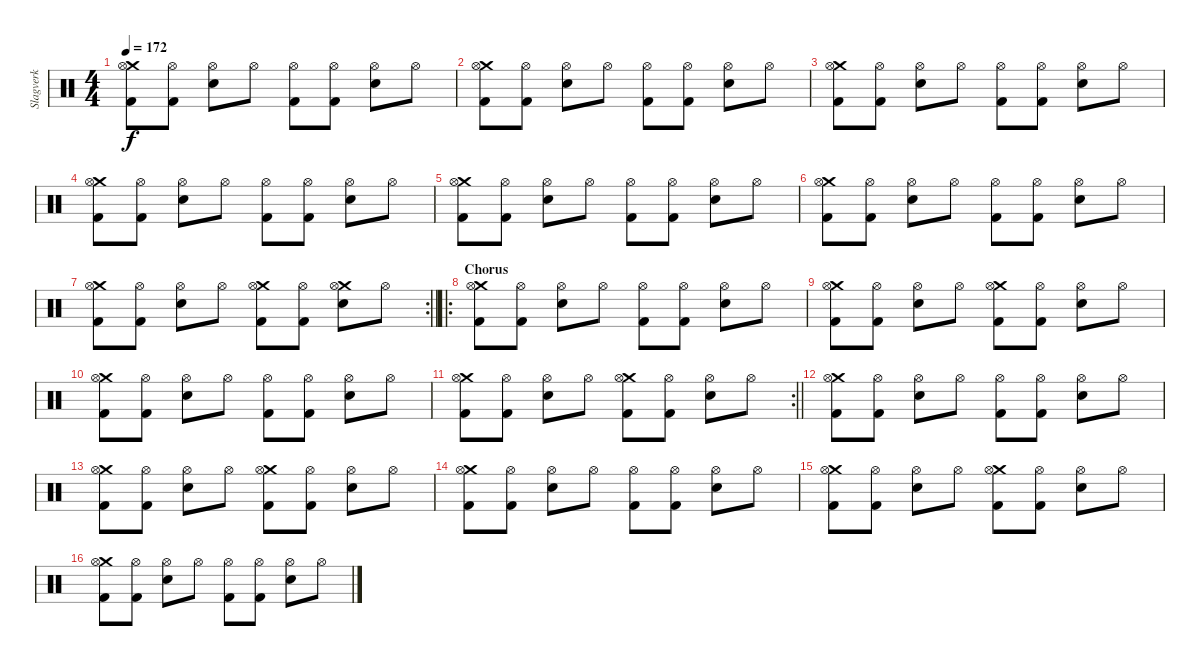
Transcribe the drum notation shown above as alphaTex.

\track ("Slagverk" "Slagverk") {instrument percussion}
\staff {score}
\articulation defaults
\ts (4 4)
\tempo 172
\clef neutral
\ks c
("Crash medium (hit)" "Kick (hit) 2" "Hi-Hat (open)").8{dy f} ("Kick (hit) 2" "Hi-Hat (open)").8 ("Snare (hit) 2" "Hi-Hat (open)").8 "Hi-Hat (open)".8 ("Kick (hit) 2" "Hi-Hat (open)").8 ("Kick (hit) 2" "Hi-Hat (open)").8 ("Snare (hit) 2" "Hi-Hat (open)").8 "Hi-Hat (open)".8 |
("Crash medium (hit)" "Kick (hit) 2" "Hi-Hat (open)").8 ("Kick (hit) 2" "Hi-Hat (open)").8 ("Snare (hit) 2" "Hi-Hat (open)").8 "Hi-Hat (open)".8 ("Kick (hit) 2" "Hi-Hat (open)").8 ("Kick (hit) 2" "Hi-Hat (open)").8 ("Snare (hit) 2" "Hi-Hat (open)").8 "Hi-Hat (open)".8 |
("Crash medium (hit)" "Kick (hit) 2" "Hi-Hat (open)").8 ("Kick (hit) 2" "Hi-Hat (open)").8 ("Snare (hit) 2" "Hi-Hat (open)").8 "Hi-Hat (open)".8 ("Kick (hit) 2" "Hi-Hat (open)").8 ("Kick (hit) 2" "Hi-Hat (open)").8 ("Snare (hit) 2" "Hi-Hat (open)").8 "Hi-Hat (open)".8 |
("Crash medium (hit)" "Kick (hit) 2" "Hi-Hat (open)").8 ("Kick (hit) 2" "Hi-Hat (open)").8 ("Snare (hit) 2" "Hi-Hat (open)").8 "Hi-Hat (open)".8 ("Kick (hit) 2" "Hi-Hat (open)").8 ("Kick (hit) 2" "Hi-Hat (open)").8 ("Snare (hit) 2" "Hi-Hat (open)").8 "Hi-Hat (open)".8 |
("Crash medium (hit)" "Kick (hit) 2" "Hi-Hat (open)").8 ("Kick (hit) 2" "Hi-Hat (open)").8 ("Snare (hit) 2" "Hi-Hat (open)").8 "Hi-Hat (open)".8 ("Kick (hit) 2" "Hi-Hat (open)").8 ("Kick (hit) 2" "Hi-Hat (open)").8 ("Snare (hit) 2" "Hi-Hat (open)").8 "Hi-Hat (open)".8 |
("Crash medium (hit)" "Kick (hit) 2" "Hi-Hat (open)").8 ("Kick (hit) 2" "Hi-Hat (open)").8 ("Snare (hit) 2" "Hi-Hat (open)").8 "Hi-Hat (open)".8 ("Kick (hit) 2" "Hi-Hat (open)").8 ("Kick (hit) 2" "Hi-Hat (open)").8 ("Snare (hit) 2" "Hi-Hat (open)").8 "Hi-Hat (open)".8 |
\rc 2
\barLineRight lightlight
("Crash medium (hit)" "Kick (hit) 2" "Hi-Hat (open)").8 ("Kick (hit) 2" "Hi-Hat (open)").8 ("Snare (hit) 2" "Hi-Hat (open)").8 "Hi-Hat (open)".8 ("Crash medium (hit)" "Kick (hit) 2" "Hi-Hat (open)").8 ("Kick (hit) 2" "Hi-Hat (open)").8 ("Crash medium (hit)" "Snare (hit) 2" "Hi-Hat (open)").8 "Hi-Hat (open)".8 |
\ro
\section ("" "Chorus")
("Crash medium (hit)" "Kick (hit) 2" "Hi-Hat (open)").8 ("Kick (hit) 2" "Hi-Hat (open)").8 ("Snare (hit) 2" "Hi-Hat (open)").8 "Hi-Hat (open)".8 ("Kick (hit) 2" "Hi-Hat (open)").8 ("Kick (hit) 2" "Hi-Hat (open)").8 ("Snare (hit) 2" "Hi-Hat (open)").8 "Hi-Hat (open)".8 |
("Crash medium (hit)" "Kick (hit) 2" "Hi-Hat (open)").8 ("Kick (hit) 2" "Hi-Hat (open)").8 ("Snare (hit) 2" "Hi-Hat (open)").8 "Hi-Hat (open)".8 ("Crash medium (hit)" "Kick (hit) 2" "Hi-Hat (open)").8 ("Kick (hit) 2" "Hi-Hat (open)").8 ("Snare (hit) 2" "Hi-Hat (open)").8 "Hi-Hat (open)".8 |
("Crash medium (hit)" "Kick (hit) 2" "Hi-Hat (open)").8 ("Kick (hit) 2" "Hi-Hat (open)").8 ("Snare (hit) 2" "Hi-Hat (open)").8 "Hi-Hat (open)".8 ("Kick (hit) 2" "Hi-Hat (open)").8 ("Kick (hit) 2" "Hi-Hat (open)").8 ("Snare (hit) 2" "Hi-Hat (open)").8 "Hi-Hat (open)".8 |
\rc 2
\barLineRight lightlight
("Crash medium (hit)" "Kick (hit) 2" "Hi-Hat (open)").8 ("Kick (hit) 2" "Hi-Hat (open)").8 ("Snare (hit) 2" "Hi-Hat (open)").8 "Hi-Hat (open)".8 ("Crash medium (hit)" "Kick (hit) 2" "Hi-Hat (open)").8 ("Kick (hit) 2" "Hi-Hat (open)").8 ("Snare (hit) 2" "Hi-Hat (open)").8 "Hi-Hat (open)".8 |
("Crash medium (hit)" "Kick (hit) 2" "Hi-Hat (open)").8 ("Kick (hit) 2" "Hi-Hat (open)").8 ("Snare (hit) 2" "Hi-Hat (open)").8 "Hi-Hat (open)".8 ("Kick (hit) 2" "Hi-Hat (open)").8 ("Kick (hit) 2" "Hi-Hat (open)").8 ("Snare (hit) 2" "Hi-Hat (open)").8 "Hi-Hat (open)".8 |
("Crash medium (hit)" "Kick (hit) 2" "Hi-Hat (open)").8 ("Kick (hit) 2" "Hi-Hat (open)").8 ("Snare (hit) 2" "Hi-Hat (open)").8 "Hi-Hat (open)".8 ("Crash medium (hit)" "Kick (hit) 2" "Hi-Hat (open)").8 ("Kick (hit) 2" "Hi-Hat (open)").8 ("Snare (hit) 2" "Hi-Hat (open)").8 "Hi-Hat (open)".8 |
("Crash medium (hit)" "Kick (hit) 2" "Hi-Hat (open)").8 ("Kick (hit) 2" "Hi-Hat (open)").8 ("Snare (hit) 2" "Hi-Hat (open)").8 "Hi-Hat (open)".8 ("Kick (hit) 2" "Hi-Hat (open)").8 ("Kick (hit) 2" "Hi-Hat (open)").8 ("Snare (hit) 2" "Hi-Hat (open)").8 "Hi-Hat (open)".8 |
("Crash medium (hit)" "Kick (hit) 2" "Hi-Hat (open)").8 ("Kick (hit) 2" "Hi-Hat (open)").8 ("Snare (hit) 2" "Hi-Hat (open)").8 "Hi-Hat (open)".8 ("Crash medium (hit)" "Kick (hit) 2" "Hi-Hat (open)").8 ("Kick (hit) 2" "Hi-Hat (open)").8 ("Snare (hit) 2" "Hi-Hat (open)").8 "Hi-Hat (open)".8 |
("Crash medium (hit)" "Kick (hit) 2" "Hi-Hat (open)").8 ("Kick (hit) 2" "Hi-Hat (open)").8 ("Snare (hit) 2" "Hi-Hat (open)").8 "Hi-Hat (open)".8 ("Kick (hit) 2" "Hi-Hat (open)").8 ("Kick (hit) 2" "Hi-Hat (open)").8 ("Snare (hit) 2" "Hi-Hat (open)").8 "Hi-Hat (open)".8
